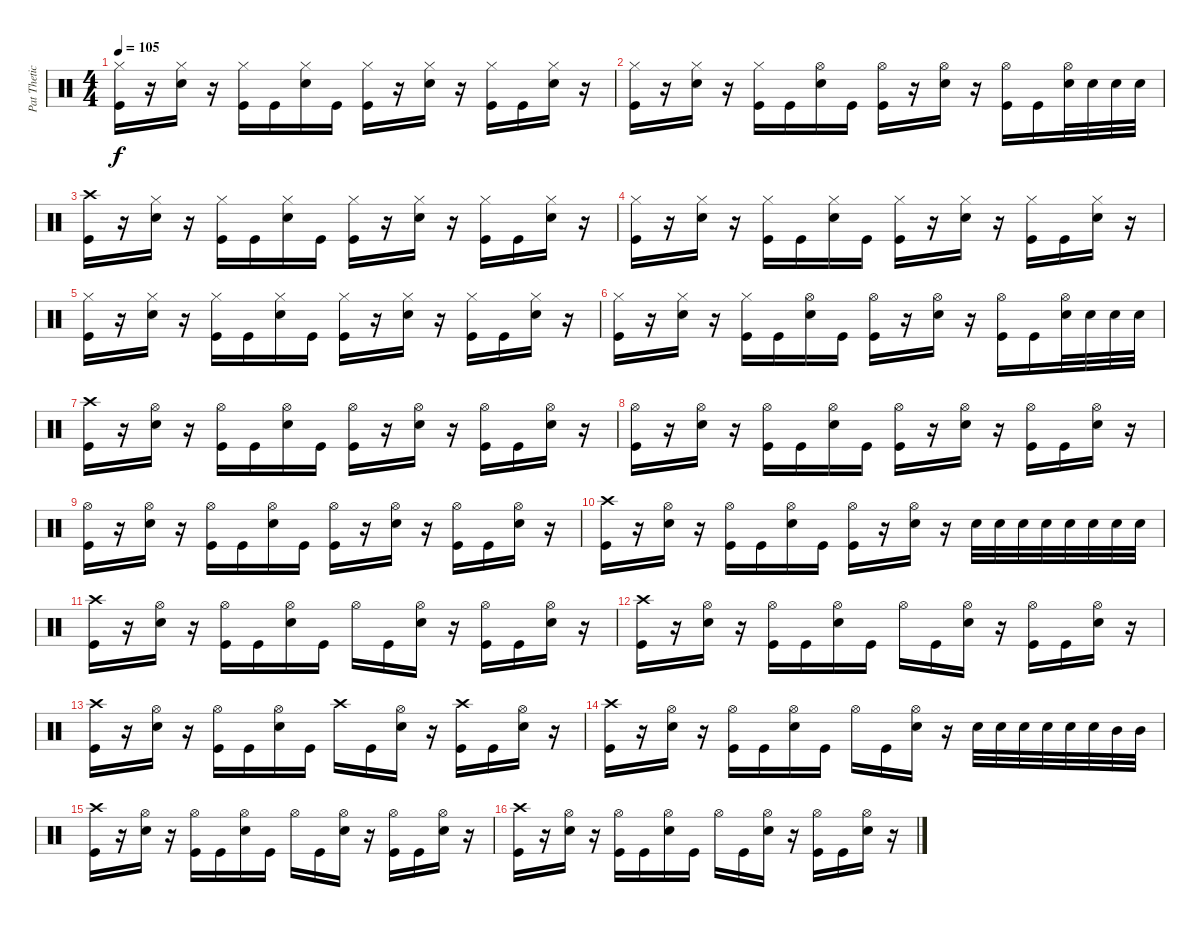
\track ("Pat Thetic" "Pat Thetic") {instrument percussion}
\staff {score}
\articulation defaults
\ts (4 4)
\tempo 105
\clef neutral
\ks c
("Hi-Hat (closed)" "Kick (hit)").16{dy f} r.16 ("Hi-Hat (closed)" "Snare (hit) 2").16 r.16 ("Hi-Hat (closed)" "Kick (hit)").16 "Kick (hit)".16 ("Hi-Hat (closed)" "Snare (hit) 2").16 "Kick (hit)".16 ("Hi-Hat (closed)" "Kick (hit)").16 r.16 ("Hi-Hat (closed)" "Snare (hit) 2").16 r.16 ("Hi-Hat (closed)" "Kick (hit)").16 "Kick (hit)".16 ("Hi-Hat (closed)" "Snare (hit) 2").16 r.16 |
("Hi-Hat (closed)" "Kick (hit)").16 r.16 ("Hi-Hat (closed)" "Snare (hit) 2").16 r.16 ("Hi-Hat (closed)" "Kick (hit)").16 "Kick (hit)".16 ("Hi-Hat (open)" "Snare (hit) 2").16 "Kick (hit)".16 ("Hi-Hat (open)" "Kick (hit)").16 r.16 ("Hi-Hat (open)" "Snare (hit) 2").16 r.16 ("Hi-Hat (open)" "Kick (hit)").16 "Kick (hit)".16 ("Hi-Hat (open)" "Snare (hit) 2").32 "Snare (hit) 2".32 "Snare (hit) 2".32 "Snare (hit) 2".32 |
("Crash high (hit)" "Kick (hit)").16 r.16 ("Hi-Hat (closed)" "Snare (hit) 2").16 r.16 ("Hi-Hat (closed)" "Kick (hit)").16 "Kick (hit)".16 ("Hi-Hat (closed)" "Snare (hit) 2").16 "Kick (hit)".16 ("Hi-Hat (closed)" "Kick (hit)").16 r.16 ("Hi-Hat (closed)" "Snare (hit) 2").16 r.16 ("Hi-Hat (closed)" "Kick (hit)").16 "Kick (hit)".16 ("Hi-Hat (closed)" "Snare (hit) 2").16 r.16 |
("Hi-Hat (closed)" "Kick (hit)").16 r.16 ("Hi-Hat (closed)" "Snare (hit) 2").16 r.16 ("Hi-Hat (closed)" "Kick (hit)").16 "Kick (hit)".16 ("Hi-Hat (closed)" "Snare (hit) 2").16 "Kick (hit)".16 ("Hi-Hat (closed)" "Kick (hit)").16 r.16 ("Hi-Hat (closed)" "Snare (hit) 2").16 r.16 ("Hi-Hat (closed)" "Kick (hit)").16 "Kick (hit)".16 ("Hi-Hat (closed)" "Snare (hit) 2").16 r.16 |
("Hi-Hat (closed)" "Kick (hit)").16 r.16 ("Hi-Hat (closed)" "Snare (hit) 2").16 r.16 ("Hi-Hat (closed)" "Kick (hit)").16 "Kick (hit)".16 ("Hi-Hat (closed)" "Snare (hit) 2").16 "Kick (hit)".16 ("Hi-Hat (closed)" "Kick (hit)").16 r.16 ("Hi-Hat (closed)" "Snare (hit) 2").16 r.16 ("Hi-Hat (closed)" "Kick (hit)").16 "Kick (hit)".16 ("Hi-Hat (closed)" "Snare (hit) 2").16 r.16 |
("Hi-Hat (closed)" "Kick (hit)").16 r.16 ("Hi-Hat (closed)" "Snare (hit) 2").16 r.16 ("Hi-Hat (closed)" "Kick (hit)").16 "Kick (hit)".16 ("Hi-Hat (open)" "Snare (hit) 2").16 "Kick (hit)".16 ("Hi-Hat (open)" "Kick (hit)").16 r.16 ("Hi-Hat (open)" "Snare (hit) 2").16 r.16 ("Hi-Hat (open)" "Kick (hit)").16 "Kick (hit)".16 ("Hi-Hat (open)" "Snare (hit) 2").32 "Snare (hit) 2".32 "Snare (hit) 2".32 "Snare (hit) 2".32 |
("Crash high (hit)" "Kick (hit)").16 r.16 ("Hi-Hat (open)" "Snare (hit) 2").16 r.16 ("Hi-Hat (open)" "Kick (hit)").16 "Kick (hit)".16 ("Hi-Hat (open)" "Snare (hit) 2").16 "Kick (hit)".16 ("Hi-Hat (open)" "Kick (hit)").16 r.16 ("Hi-Hat (open)" "Snare (hit) 2").16 r.16 ("Hi-Hat (open)" "Kick (hit)").16 "Kick (hit)".16 ("Hi-Hat (open)" "Snare (hit) 2").16 r.16 |
("Hi-Hat (open)" "Kick (hit)").16 r.16 ("Hi-Hat (open)" "Snare (hit) 2").16 r.16 ("Hi-Hat (open)" "Kick (hit)").16 "Kick (hit)".16 ("Hi-Hat (open)" "Snare (hit) 2").16 "Kick (hit)".16 ("Hi-Hat (open)" "Kick (hit)").16 r.16 ("Hi-Hat (open)" "Snare (hit) 2").16 r.16 ("Hi-Hat (open)" "Kick (hit)").16 "Kick (hit)".16 ("Hi-Hat (open)" "Snare (hit) 2").16 r.16 |
("Hi-Hat (open)" "Kick (hit)").16 r.16 ("Hi-Hat (open)" "Snare (hit) 2").16 r.16 ("Hi-Hat (open)" "Kick (hit)").16 "Kick (hit)".16 ("Hi-Hat (open)" "Snare (hit) 2").16 "Kick (hit)".16 ("Hi-Hat (open)" "Kick (hit)").16 r.16 ("Hi-Hat (open)" "Snare (hit) 2").16 r.16 ("Hi-Hat (open)" "Kick (hit)").16 "Kick (hit)".16 ("Hi-Hat (open)" "Snare (hit) 2").16 r.16 |
("Crash high (hit)" "Kick (hit)").16 r.16 ("Hi-Hat (open)" "Snare (hit) 2").16 r.16 ("Hi-Hat (open)" "Kick (hit)").16 "Kick (hit)".16 ("Hi-Hat (open)" "Snare (hit) 2").16 "Kick (hit)".16 ("Hi-Hat (open)" "Kick (hit)").16 r.16 ("Hi-Hat (open)" "Snare (hit) 2").16 r.16 "Snare (hit) 2".32 "Snare (hit) 2".32 "Snare (hit) 2".32 "Snare (hit) 2".32 "Snare (hit) 2".32 "Snare (hit) 2".32 "Snare (hit) 2".32 "Snare (hit) 2".32 |
("Crash high (hit)" "Kick (hit)").16 r.16 ("Hi-Hat (open)" "Snare (hit) 2").16 r.16 ("Hi-Hat (open)" "Kick (hit)").16 "Kick (hit)".16 ("Hi-Hat (open)" "Snare (hit) 2").16 "Kick (hit)".16 "Hi-Hat (open)".16 "Kick (hit)".16 ("Hi-Hat (open)" "Snare (hit) 2").16 r.16 ("Hi-Hat (open)" "Kick (hit)").16 "Kick (hit)".16 ("Hi-Hat (open)" "Snare (hit) 2").16 r.16 |
("Crash high (hit)" "Kick (hit)").16 r.16 ("Hi-Hat (open)" "Snare (hit) 2").16 r.16 ("Hi-Hat (open)" "Kick (hit)").16 "Kick (hit)".16 ("Hi-Hat (open)" "Snare (hit) 2").16 "Kick (hit)".16 "Hi-Hat (open)".16 "Kick (hit)".16 ("Hi-Hat (open)" "Snare (hit) 2").16 r.16 ("Hi-Hat (open)" "Kick (hit)").16 "Kick (hit)".16 ("Hi-Hat (open)" "Snare (hit) 2").16 r.16 |
("Crash high (hit)" "Kick (hit)").16 r.16 ("Hi-Hat (open)" "Snare (hit) 2").16 r.16 ("Hi-Hat (open)" "Kick (hit)").16 "Kick (hit)".16 ("Hi-Hat (open)" "Snare (hit) 2").16 "Kick (hit)".16 "Crash high (hit)".16 "Kick (hit)".16 ("Hi-Hat (open)" "Snare (hit) 2").16 r.16 ("Crash high (hit)" "Kick (hit)").16 "Kick (hit)".16 ("Hi-Hat (open)" "Snare (hit) 2").16 r.16 |
("Crash high (hit)" "Kick (hit)").16 r.16 ("Hi-Hat (open)" "Snare (hit) 2").16 r.16 ("Hi-Hat (open)" "Kick (hit)").16 "Kick (hit)".16 ("Hi-Hat (open)" "Snare (hit) 2").16 "Kick (hit)".16 "Hi-Hat (open)".16 "Kick (hit)".16 ("Hi-Hat (open)" "Snare (hit) 2").16 r.16 "Snare (hit) 2".32 "Snare (hit) 2".32 "Snare (hit) 2".32 "Electric Snare (hit)".32 "Electric Snare (hit)".32 "Electric Snare (hit)".32 "Mid Tom (hit)".32 "Mid Tom (hit)".32 |
("Crash high (hit)" "Kick (hit)").16 r.16 ("Hi-Hat (open)" "Snare (hit) 2").16 r.16 ("Hi-Hat (open)" "Kick (hit)").16 "Kick (hit)".16 ("Hi-Hat (open)" "Snare (hit) 2").16 "Kick (hit)".16 "Hi-Hat (open)".16 "Kick (hit)".16 ("Hi-Hat (open)" "Snare (hit) 2").16 r.16 ("Hi-Hat (open)" "Kick (hit)").16 "Kick (hit)".16 ("Hi-Hat (open)" "Snare (hit) 2").16 r.16 |
("Crash high (hit)" "Kick (hit)").16 r.16 ("Hi-Hat (open)" "Snare (hit) 2").16 r.16 ("Hi-Hat (open)" "Kick (hit)").16 "Kick (hit)".16 ("Hi-Hat (open)" "Snare (hit) 2").16 "Kick (hit)".16 "Hi-Hat (open)".16 "Kick (hit)".16 ("Hi-Hat (open)" "Snare (hit) 2").16 r.16 ("Hi-Hat (open)" "Kick (hit)").16 "Kick (hit)".16 ("Hi-Hat (open)" "Snare (hit) 2").16 r.16
